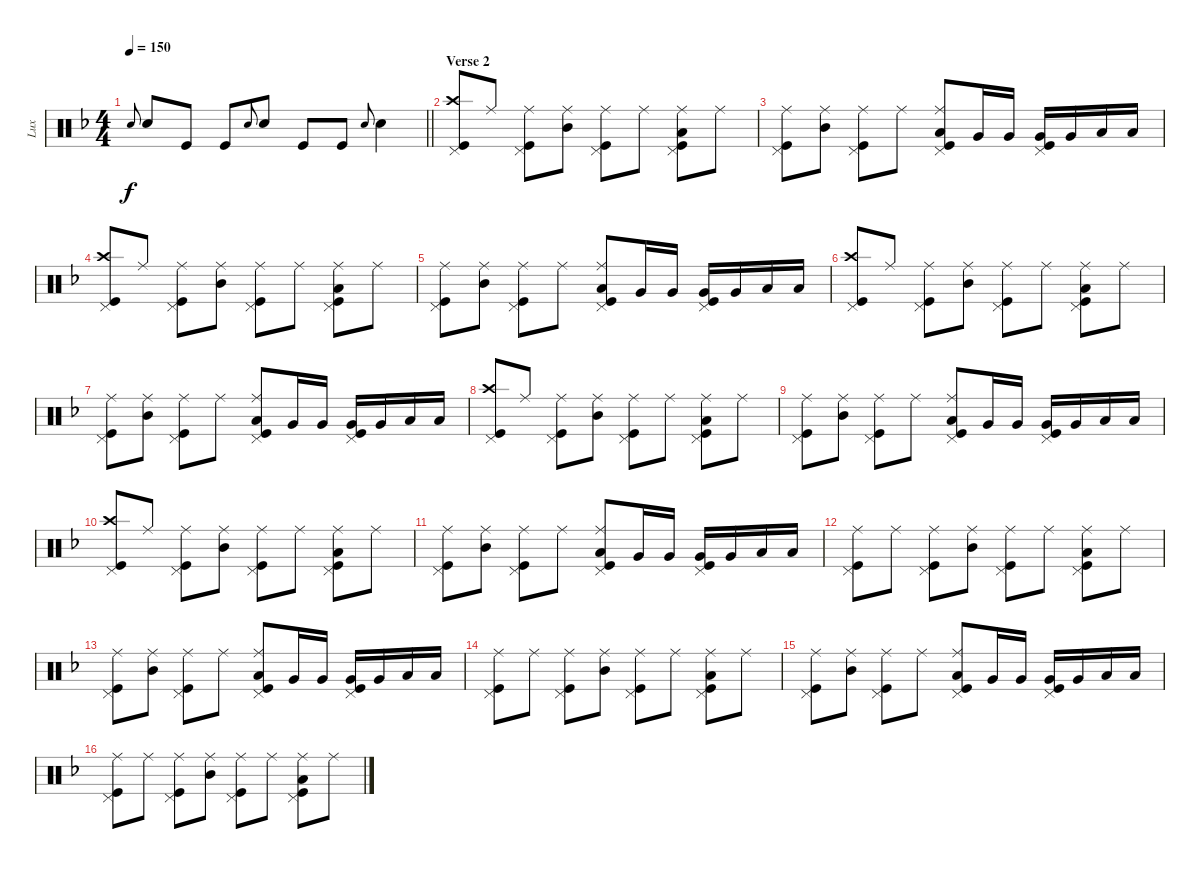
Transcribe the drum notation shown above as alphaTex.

\track ("Lux" "Lux") {instrument percussion}
\staff {score}
\articulation defaults
\ts (4 4)
\tempo 150
\clef neutral
\barLineRight lightlight
\ks dminor "Snare (hit) 2".8{gr onbeat dy f} "Snare (hit) 2".8 "Kick (hit)".8 "Kick (hit)".8 "Snare (hit) 2".8{gr onbeat} "Snare (hit) 2".8 "Kick (hit)".8 "Kick (hit)".8 "Snare (hit) 2".8{gr onbeat} "Snare (hit) 2".4
|
\section ("" "Verse 2")
("Crash high (hit)" "Pedal Hi-Hat (hit)" "Kick (hit)").8 "Ride (middle)".8 ("Ride (middle)" "Pedal Hi-Hat (hit)" "Kick (hit)").8 ("Ride (middle)" "Mid Tom (hit)").8 ("Ride (middle)" "Pedal Hi-Hat (hit)" "Kick (hit)").8 "Ride (middle)".8 ("Ride (middle)" "Low Tom (hit)" "Pedal Hi-Hat (hit)" "Kick (hit)").8 "Ride (middle)".8 |
("Ride (middle)" "Pedal Hi-Hat (hit)" "Kick (hit)").8 ("Ride (middle)" "Mid Tom (hit)").8 ("Ride (middle)" "Pedal Hi-Hat (hit)" "Kick (hit)").8 "Ride (middle)".8 ("Ride (middle)" "Low Tom (hit)" "Pedal Hi-Hat (hit)" "Kick (hit)").8 "Very Low Tom (hit)".16 "Very Low Tom (hit)".16 ("Very Low Tom (hit)" "Pedal Hi-Hat (hit)" "Kick (hit)").16 "Very Low Tom (hit)".16 "Low Floor Tom (hit)".16 "Low Floor Tom (hit)".16 |
("Crash high (hit)" "Pedal Hi-Hat (hit)" "Kick (hit)").8 "Ride (middle)".8 ("Ride (middle)" "Pedal Hi-Hat (hit)" "Kick (hit)").8 ("Ride (middle)" "Mid Tom (hit)").8 ("Ride (middle)" "Pedal Hi-Hat (hit)" "Kick (hit)").8 "Ride (middle)".8 ("Ride (middle)" "Low Tom (hit)" "Pedal Hi-Hat (hit)" "Kick (hit)").8 "Ride (middle)".8 |
("Ride (middle)" "Pedal Hi-Hat (hit)" "Kick (hit)").8 ("Ride (middle)" "Mid Tom (hit)").8 ("Ride (middle)" "Pedal Hi-Hat (hit)" "Kick (hit)").8 "Ride (middle)".8 ("Ride (middle)" "Low Tom (hit)" "Pedal Hi-Hat (hit)" "Kick (hit)").8 "Very Low Tom (hit)".16 "Very Low Tom (hit)".16 ("Very Low Tom (hit)" "Pedal Hi-Hat (hit)" "Kick (hit)").16 "Very Low Tom (hit)".16 "Low Floor Tom (hit)".16 "Low Floor Tom (hit)".16 |
("Crash high (hit)" "Pedal Hi-Hat (hit)" "Kick (hit)").8 "Ride (middle)".8 ("Ride (middle)" "Pedal Hi-Hat (hit)" "Kick (hit)").8 ("Ride (middle)" "Mid Tom (hit)").8 ("Ride (middle)" "Pedal Hi-Hat (hit)" "Kick (hit)").8 "Ride (middle)".8 ("Ride (middle)" "Low Tom (hit)" "Pedal Hi-Hat (hit)" "Kick (hit)").8 "Ride (middle)".8 |
("Ride (middle)" "Pedal Hi-Hat (hit)" "Kick (hit)").8 ("Ride (middle)" "Mid Tom (hit)").8 ("Ride (middle)" "Pedal Hi-Hat (hit)" "Kick (hit)").8 "Ride (middle)".8 ("Ride (middle)" "Low Tom (hit)" "Pedal Hi-Hat (hit)" "Kick (hit)").8 "Very Low Tom (hit)".16 "Very Low Tom (hit)".16 ("Very Low Tom (hit)" "Pedal Hi-Hat (hit)" "Kick (hit)").16 "Very Low Tom (hit)".16 "Low Floor Tom (hit)".16 "Low Floor Tom (hit)".16 |
("Crash high (hit)" "Pedal Hi-Hat (hit)" "Kick (hit)").8 "Ride (middle)".8 ("Ride (middle)" "Pedal Hi-Hat (hit)" "Kick (hit)").8 ("Ride (middle)" "Mid Tom (hit)").8 ("Ride (middle)" "Pedal Hi-Hat (hit)" "Kick (hit)").8 "Ride (middle)".8 ("Ride (middle)" "Low Tom (hit)" "Pedal Hi-Hat (hit)" "Kick (hit)").8 "Ride (middle)".8 |
("Ride (middle)" "Pedal Hi-Hat (hit)" "Kick (hit)").8 ("Ride (middle)" "Mid Tom (hit)").8 ("Ride (middle)" "Pedal Hi-Hat (hit)" "Kick (hit)").8 "Ride (middle)".8 ("Ride (middle)" "Low Tom (hit)" "Pedal Hi-Hat (hit)" "Kick (hit)").8 "Very Low Tom (hit)".16 "Very Low Tom (hit)".16 ("Very Low Tom (hit)" "Pedal Hi-Hat (hit)" "Kick (hit)").16 "Very Low Tom (hit)".16 "Low Floor Tom (hit)".16 "Low Floor Tom (hit)".16 |
("Crash high (hit)" "Pedal Hi-Hat (hit)" "Kick (hit)").8 "Ride (middle)".8 ("Ride (middle)" "Pedal Hi-Hat (hit)" "Kick (hit)").8 ("Ride (middle)" "Mid Tom (hit)").8 ("Ride (middle)" "Pedal Hi-Hat (hit)" "Kick (hit)").8 "Ride (middle)".8 ("Ride (middle)" "Low Tom (hit)" "Pedal Hi-Hat (hit)" "Kick (hit)").8 "Ride (middle)".8 |
("Ride (middle)" "Pedal Hi-Hat (hit)" "Kick (hit)").8 ("Ride (middle)" "Mid Tom (hit)").8 ("Ride (middle)" "Pedal Hi-Hat (hit)" "Kick (hit)").8 "Ride (middle)".8 ("Ride (middle)" "Low Tom (hit)" "Pedal Hi-Hat (hit)" "Kick (hit)").8 "Very Low Tom (hit)".16 "Very Low Tom (hit)".16 ("Very Low Tom (hit)" "Pedal Hi-Hat (hit)" "Kick (hit)").16 "Very Low Tom (hit)".16 "Low Floor Tom (hit)".16 "Low Floor Tom (hit)".16 |
("Ride (middle)" "Pedal Hi-Hat (hit)" "Kick (hit)").8 "Ride (middle)".8 ("Ride (middle)" "Pedal Hi-Hat (hit)" "Kick (hit)").8 ("Ride (middle)" "Mid Tom (hit)").8 ("Ride (middle)" "Pedal Hi-Hat (hit)" "Kick (hit)").8 "Ride (middle)".8 ("Ride (middle)" "Low Tom (hit)" "Pedal Hi-Hat (hit)" "Kick (hit)").8 "Ride (middle)".8 |
("Ride (middle)" "Pedal Hi-Hat (hit)" "Kick (hit)").8 ("Ride (middle)" "Mid Tom (hit)").8 ("Ride (middle)" "Pedal Hi-Hat (hit)" "Kick (hit)").8 "Ride (middle)".8 ("Ride (middle)" "Low Tom (hit)" "Pedal Hi-Hat (hit)" "Kick (hit)").8 "Very Low Tom (hit)".16 "Very Low Tom (hit)".16 ("Very Low Tom (hit)" "Pedal Hi-Hat (hit)" "Kick (hit)").16 "Very Low Tom (hit)".16 "Low Floor Tom (hit)".16 "Low Floor Tom (hit)".16 |
("Ride (middle)" "Pedal Hi-Hat (hit)" "Kick (hit)").8 "Ride (middle)".8 ("Ride (middle)" "Pedal Hi-Hat (hit)" "Kick (hit)").8 ("Ride (middle)" "Mid Tom (hit)").8 ("Ride (middle)" "Pedal Hi-Hat (hit)" "Kick (hit)").8 "Ride (middle)".8 ("Ride (middle)" "Low Tom (hit)" "Pedal Hi-Hat (hit)" "Kick (hit)").8 "Ride (middle)".8 |
("Ride (middle)" "Pedal Hi-Hat (hit)" "Kick (hit)").8 ("Ride (middle)" "Mid Tom (hit)").8 ("Ride (middle)" "Pedal Hi-Hat (hit)" "Kick (hit)").8 "Ride (middle)".8 ("Ride (middle)" "Low Tom (hit)" "Pedal Hi-Hat (hit)" "Kick (hit)").8 "Very Low Tom (hit)".16 "Very Low Tom (hit)".16 ("Very Low Tom (hit)" "Pedal Hi-Hat (hit)" "Kick (hit)").16 "Very Low Tom (hit)".16 "Low Floor Tom (hit)".16 "Low Floor Tom (hit)".16 |
("Ride (middle)" "Pedal Hi-Hat (hit)" "Kick (hit)").8 "Ride (middle)".8 ("Ride (middle)" "Pedal Hi-Hat (hit)" "Kick (hit)").8 ("Ride (middle)" "Mid Tom (hit)").8 ("Ride (middle)" "Pedal Hi-Hat (hit)" "Kick (hit)").8 "Ride (middle)".8 ("Ride (middle)" "Low Tom (hit)" "Pedal Hi-Hat (hit)" "Kick (hit)").8 "Ride (middle)".8
